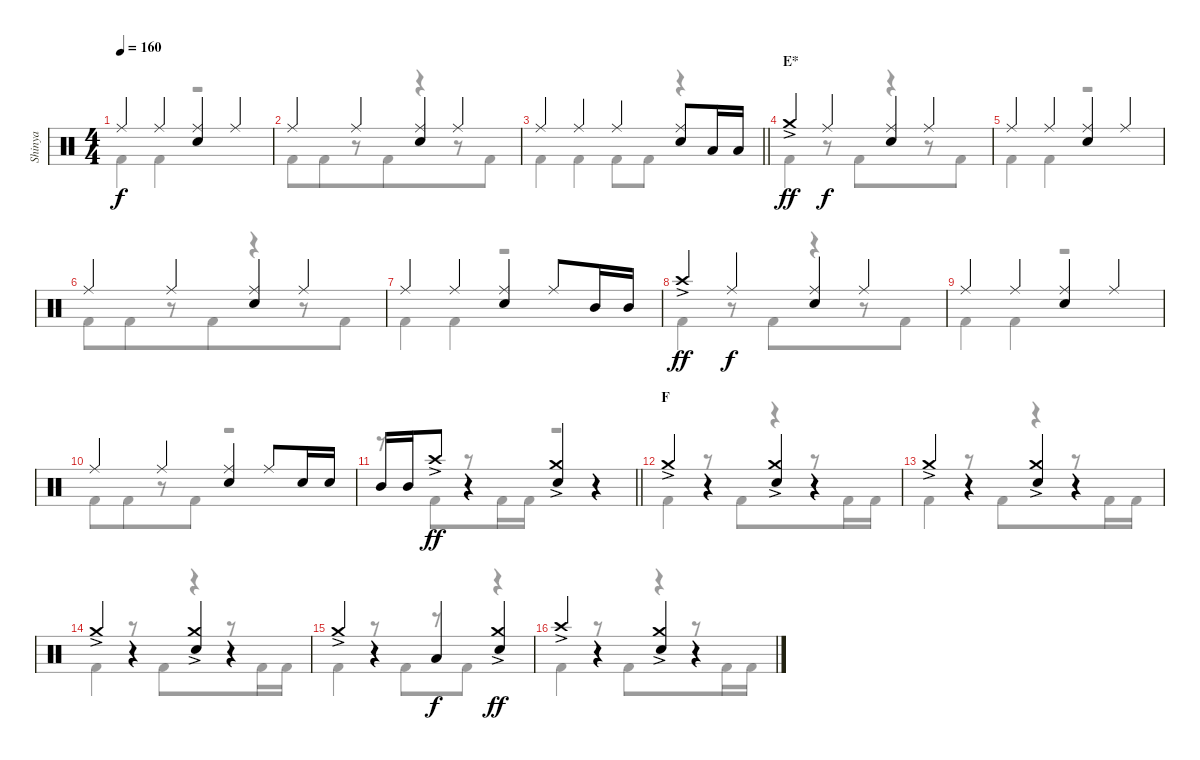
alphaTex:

\track ("Shinya" "Shinya") {instrument percussion}
\staff {score}
\articulation defaults
\voice
\ts (4 4)
\tempo 160
\clef neutral
\ks c "Ride (middle)".4{dy f beam merge} "Ride (middle)".4{beam merge}
("Ride (middle)" "Electric Snare (hit)").4{beam merge} "Ride (middle)".4 |
"Ride (middle)".4{beam merge} "Ride (middle)".4{beam merge} ("Ride (middle)" "Electric Snare (hit)").4{beam merge} "Ride (middle)".4 |
\barLineRight lightlight "Ride (middle)".4{beam merge} "Ride (middle)".4{beam merge} "Ride (middle)".4{beam merge}
("Ride (middle)" "Electric Snare (hit)").8 "Low Tom (hit)".16 "Low Tom (hit)".16 |
\section ("" "E*")
"Crash medium (hit)"{ac}.4{dy ff beam merge} "Ride (middle)".4{dy f beam merge} ("Ride (middle)" "Electric Snare (hit)").4{beam merge} "Ride (middle)".4 |
"Ride (middle)".4{beam merge} "Ride (middle)".4{beam merge} ("Ride (middle)" "Electric Snare (hit)").4{beam merge} "Ride (middle)".4 |
"Ride (middle)".4{beam merge} "Ride (middle)".4{beam merge} ("Ride (middle)" "Electric Snare (hit)").4{beam merge} "Ride (middle)".4 |
"Ride (middle)".4{beam merge} "Ride (middle)".4{beam merge} ("Ride (middle)" "Electric Snare (hit)").4 "Ride (middle)".8{beam merge} "Mid Tom (hit)".16{beam merge} "Mid Tom (hit)".16 |
"Crash high (hit)"{ac}.4{dy ff beam merge} "Ride (middle)".4{dy f beam merge} ("Ride (middle)" "Electric Snare (hit)").4{beam merge} "Ride (middle)".4 |
"Ride (middle)".4{beam merge} "Ride (middle)".4{beam merge} ("Ride (middle)" "Electric Snare (hit)").4{beam merge} "Ride (middle)".4 |
"Ride (middle)".4{beam merge} "Ride (middle)".4{beam merge} ("Ride (middle)" "Electric Snare (hit)").4{beam merge} "Ride (middle)".8{beam merge} "Electric Snare (hit)".16{beam merge} "Electric Snare (hit)".16 |
\barLineRight lightlight "Mid Tom (hit)".16{beam merge} "Mid Tom (hit)".16{beam merge} "Crash high (hit)"{ac}.8{dy ff beam merge}
r.4{beam merge} ("Crash medium (hit)"{ac} "Electric Snare (hit)").4 r.4 |
\section ("" "F")
"Crash medium (hit)"{ac}.4{beam merge} r.4{beam merge} ("Crash medium (hit)"{ac} "Electric Snare (hit)").4{beam merge} r.4 |
"Crash medium (hit)"{ac}.4{beam merge} r.4{beam merge} ("Crash medium (hit)"{ac} "Electric Snare (hit)").4{beam merge} r.4 |
"Crash medium (hit)"{ac}.4{beam merge} r.4{beam merge} ("Crash medium (hit)"{ac} "Electric Snare (hit)").4{beam merge} r.4 |
"Crash medium (hit)"{ac}.4{beam merge} r.4{beam merge} "Low Tom (hit)".4{dy f beam merge} ("Crash medium (hit)"{ac} "Electric Snare (hit)").4{dy ff} |
"Crash high (hit)"{ac}.4{beam merge} r.4{beam merge} ("Crash medium (hit)"{ac} "Electric Snare (hit)").4{beam merge} r.4
\voice
\clef neutral
\ottava regular
\simile none
\ks c "Kick (hit) 2".4{dy f beam merge} "Kick (hit) 2".4{beam merge}
r.2 |
"Kick (hit) 2".8{beam merge} "Kick (hit) 2".8{beam merge} r.8{beam merge} "Kick (hit) 2".8{beam merge} r.4 r.8{beam merge} "Kick (hit) 2".8 |
\barLineRight lightlight "Kick (hit) 2".4{beam merge} "Kick (hit) 2".4{beam merge} "Kick (hit) 2".8{beam merge} "Kick (hit) 2".8{beam merge}
r.4 |
"Kick (hit) 2".4{beam merge} r.8{beam merge} "Kick (hit) 2".8{beam merge} r.4{beam merge} r.8 "Kick (hit) 2".8 |
"Kick (hit) 2".4{beam merge} "Kick (hit) 2".4{beam merge} r.2 |
"Kick (hit) 2".8{beam merge} "Kick (hit) 2".8{beam merge} r.8{beam merge} "Kick (hit) 2".8{beam merge} r.4 r.8{beam merge} "Kick (hit) 2".8 |
"Kick (hit) 2".4{beam merge} "Kick (hit) 2".4{beam merge} r.2 |
"Kick (hit) 2".4{beam merge} r.8{beam merge} "Kick (hit) 2".8{beam merge} r.4{beam merge} r.8 "Kick (hit) 2".8 |
"Kick (hit) 2".4{beam merge} "Kick (hit) 2".4{beam merge} r.2 |
"Kick (hit) 2".8{beam merge} "Kick (hit) 2".8{beam merge} r.8{beam merge} "Kick (hit) 2".8 r.2 |
\barLineRight lightlight
r.8{beam merge} "Kick (hit) 2".8{beam merge} r.8 "Kick (hit) 2".16{beam merge} "Kick (hit) 2".16{beam merge} r.2 |
"Kick (hit) 2".4{beam merge} r.8{beam merge} "Kick (hit) 2".8{beam merge} r.4{beam merge} r.8 "Kick (hit) 2".16{beam merge} "Kick (hit) 2".16 |
"Kick (hit) 2".4{beam merge} r.8{beam merge} "Kick (hit) 2".8{beam merge} r.4{beam merge} r.8 "Kick (hit) 2".16{beam merge} "Kick (hit) 2".16 |
"Kick (hit) 2".4{beam merge} r.8{beam merge} "Kick (hit) 2".8{beam merge} r.4{beam merge} r.8 "Kick (hit) 2".16{beam merge} "Kick (hit) 2".16 |
"Kick (hit) 2".4{beam merge} r.8{beam merge} "Kick (hit) 2".8{beam merge} r.8{beam merge} "Kick (hit) 2".8 r.4 |
"Kick (hit) 2".4{beam merge} r.8{beam merge} "Kick (hit) 2".8{beam merge} r.4{beam merge} r.8 "Kick (hit) 2".16{beam merge} "Kick (hit) 2".16
